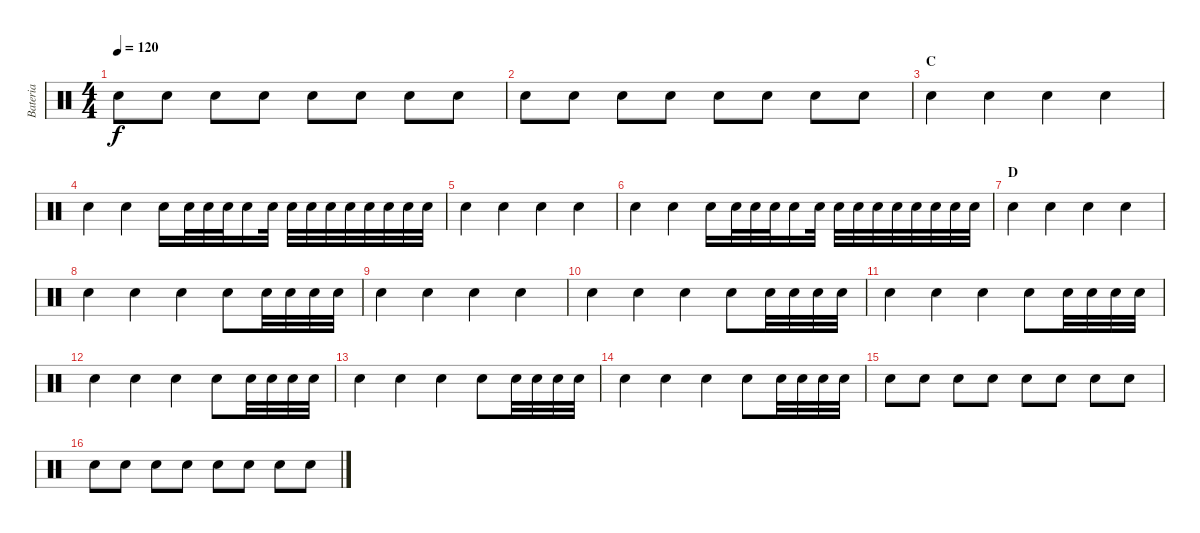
\track ("Bateria" "Bateria") {instrument percussion}
\staff {score}
\articulation defaults
\ts (4 4)
\tempo 120
\clef neutral
\ks c "Electric Snare (hit)".8{dy f} "Electric Snare (hit)".8 "Electric Snare (hit)".8 "Electric Snare (hit)".8 "Electric Snare (hit)".8 "Electric Snare (hit)".8 "Electric Snare (hit)".8 "Electric Snare (hit)".8
|
"Electric Snare (hit)".8 "Electric Snare (hit)".8 "Electric Snare (hit)".8 "Electric Snare (hit)".8 "Electric Snare (hit)".8 "Electric Snare (hit)".8 "Electric Snare (hit)".8 "Electric Snare (hit)".8 |
\section ("" "C")
"Electric Snare (hit)".4 "Electric Snare (hit)".4 "Electric Snare (hit)".4 "Electric Snare (hit)".4 |
"Electric Snare (hit)".4 "Electric Snare (hit)".4 "Electric Snare (hit)".16 "Electric Snare (hit)".32 "Electric Snare (hit)".32 "Electric Snare (hit)".32 "Electric Snare (hit)".16 "Electric Snare (hit)".32 "Electric Snare (hit)".32 "Electric Snare (hit)".32 "Electric Snare (hit)".32 "Electric Snare (hit)".32 "Electric Snare (hit)".32 "Electric Snare (hit)".32 "Electric Snare (hit)".32 "Electric Snare (hit)".32 |
"Electric Snare (hit)".4 "Electric Snare (hit)".4 "Electric Snare (hit)".4 "Electric Snare (hit)".4 |
"Electric Snare (hit)".4 "Electric Snare (hit)".4 "Electric Snare (hit)".16 "Electric Snare (hit)".32 "Electric Snare (hit)".32 "Electric Snare (hit)".32 "Electric Snare (hit)".16 "Electric Snare (hit)".32 "Electric Snare (hit)".32 "Electric Snare (hit)".32 "Electric Snare (hit)".32 "Electric Snare (hit)".32 "Electric Snare (hit)".32 "Electric Snare (hit)".32 "Electric Snare (hit)".32 "Electric Snare (hit)".32 |
\section ("" "D")
"Electric Snare (hit)".4 "Electric Snare (hit)".4 "Electric Snare (hit)".4 "Electric Snare (hit)".4 |
"Electric Snare (hit)".4 "Electric Snare (hit)".4 "Electric Snare (hit)".4 "Electric Snare (hit)".8 "Electric Snare (hit)".32 "Electric Snare (hit)".32 "Electric Snare (hit)".32 "Electric Snare (hit)".32 |
"Electric Snare (hit)".4 "Electric Snare (hit)".4 "Electric Snare (hit)".4 "Electric Snare (hit)".4 |
"Electric Snare (hit)".4 "Electric Snare (hit)".4 "Electric Snare (hit)".4 "Electric Snare (hit)".8 "Electric Snare (hit)".32 "Electric Snare (hit)".32 "Electric Snare (hit)".32 "Electric Snare (hit)".32 |
"Electric Snare (hit)".4 "Electric Snare (hit)".4 "Electric Snare (hit)".4 "Electric Snare (hit)".8 "Electric Snare (hit)".32 "Electric Snare (hit)".32 "Electric Snare (hit)".32 "Electric Snare (hit)".32 |
"Electric Snare (hit)".4 "Electric Snare (hit)".4 "Electric Snare (hit)".4 "Electric Snare (hit)".8 "Electric Snare (hit)".32 "Electric Snare (hit)".32 "Electric Snare (hit)".32 "Electric Snare (hit)".32 |
"Electric Snare (hit)".4 "Electric Snare (hit)".4 "Electric Snare (hit)".4 "Electric Snare (hit)".8 "Electric Snare (hit)".32 "Electric Snare (hit)".32 "Electric Snare (hit)".32 "Electric Snare (hit)".32 |
"Electric Snare (hit)".4 "Electric Snare (hit)".4 "Electric Snare (hit)".4 "Electric Snare (hit)".8 "Electric Snare (hit)".32 "Electric Snare (hit)".32 "Electric Snare (hit)".32 "Electric Snare (hit)".32 |
"Electric Snare (hit)".8 "Electric Snare (hit)".8 "Electric Snare (hit)".8 "Electric Snare (hit)".8 "Electric Snare (hit)".8 "Electric Snare (hit)".8 "Electric Snare (hit)".8 "Electric Snare (hit)".8 |
"Electric Snare (hit)".8 "Electric Snare (hit)".8 "Electric Snare (hit)".8 "Electric Snare (hit)".8 "Electric Snare (hit)".8 "Electric Snare (hit)".8 "Electric Snare (hit)".8 "Electric Snare (hit)".8
